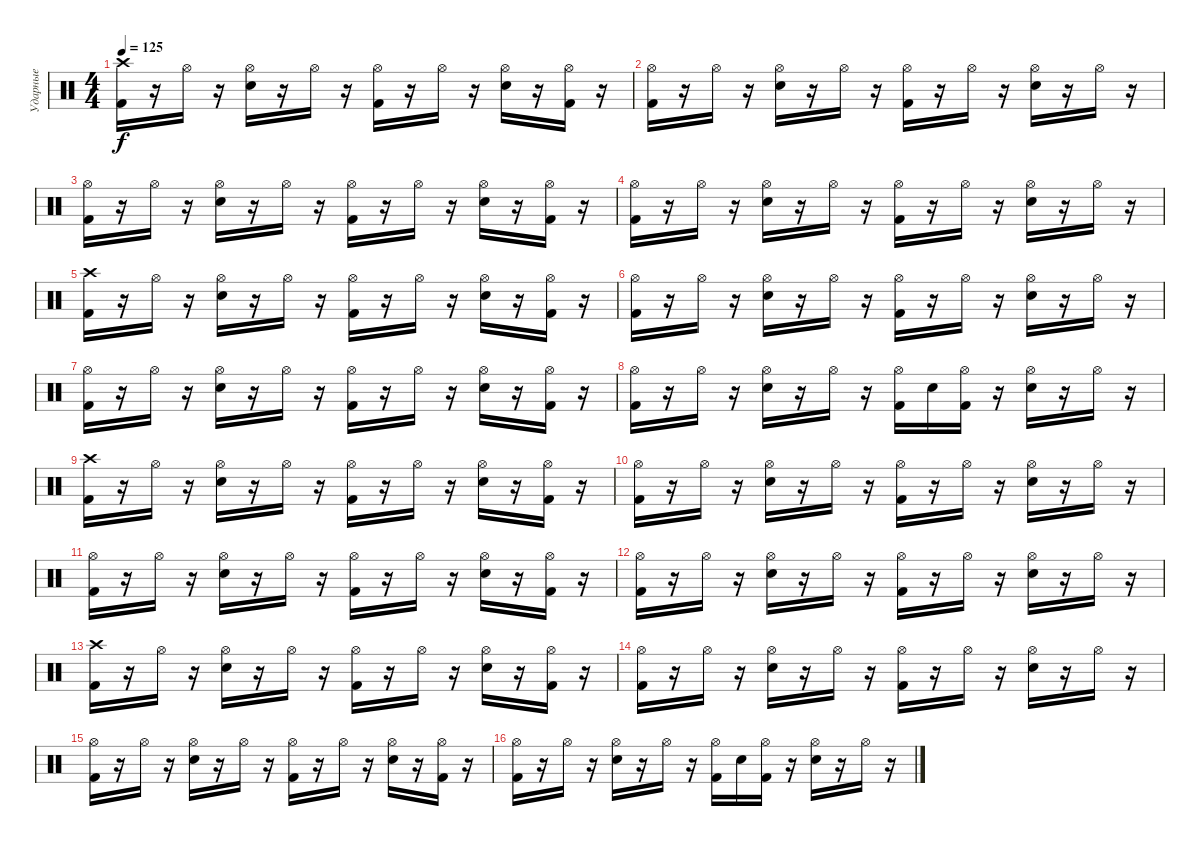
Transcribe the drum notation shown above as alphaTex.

\track ("Ударные" "Ударные") {instrument percussion}
\staff {score}
\articulation defaults
\ts (4 4)
\tempo 125
\clef neutral
\ks c
("Crash high (hit)" "Kick (hit) 2").16{dy f} r.16 "Hi-Hat (open)".16 r.16 ("Hi-Hat (open)" "Electric Snare (hit)").16 r.16 "Hi-Hat (open)".16 r.16 ("Hi-Hat (open)" "Kick (hit) 2").16 r.16 "Hi-Hat (open)".16 r.16 ("Hi-Hat (open)" "Electric Snare (hit)").16 r.16 ("Hi-Hat (open)" "Kick (hit) 2").16 r.16 |
("Hi-Hat (open)" "Kick (hit) 2").16 r.16 "Hi-Hat (open)".16 r.16 ("Hi-Hat (open)" "Electric Snare (hit)").16 r.16 "Hi-Hat (open)".16 r.16 ("Hi-Hat (open)" "Kick (hit) 2").16 r.16 "Hi-Hat (open)".16 r.16 ("Hi-Hat (open)" "Electric Snare (hit)").16 r.16 "Hi-Hat (open)".16 r.16 |
("Hi-Hat (open)" "Kick (hit) 2").16 r.16 "Hi-Hat (open)".16 r.16 ("Hi-Hat (open)" "Electric Snare (hit)").16 r.16 "Hi-Hat (open)".16 r.16 ("Hi-Hat (open)" "Kick (hit) 2").16 r.16 "Hi-Hat (open)".16 r.16 ("Hi-Hat (open)" "Electric Snare (hit)").16 r.16 ("Hi-Hat (open)" "Kick (hit) 2").16 r.16 |
("Hi-Hat (open)" "Kick (hit) 2").16 r.16 "Hi-Hat (open)".16 r.16 ("Hi-Hat (open)" "Electric Snare (hit)").16 r.16 "Hi-Hat (open)".16 r.16 ("Hi-Hat (open)" "Kick (hit) 2").16 r.16 "Hi-Hat (open)".16 r.16 ("Hi-Hat (open)" "Electric Snare (hit)").16 r.16 "Hi-Hat (open)".16 r.16 |
("Crash high (hit)" "Kick (hit) 2").16 r.16 "Hi-Hat (open)".16 r.16 ("Hi-Hat (open)" "Electric Snare (hit)").16 r.16 "Hi-Hat (open)".16 r.16 ("Hi-Hat (open)" "Kick (hit) 2").16 r.16 "Hi-Hat (open)".16 r.16 ("Hi-Hat (open)" "Electric Snare (hit)").16 r.16 ("Hi-Hat (open)" "Kick (hit) 2").16 r.16 |
("Hi-Hat (open)" "Kick (hit) 2").16 r.16 "Hi-Hat (open)".16 r.16 ("Hi-Hat (open)" "Electric Snare (hit)").16 r.16 "Hi-Hat (open)".16 r.16 ("Hi-Hat (open)" "Kick (hit) 2").16 r.16 "Hi-Hat (open)".16 r.16 ("Hi-Hat (open)" "Electric Snare (hit)").16 r.16 "Hi-Hat (open)".16 r.16 |
("Hi-Hat (open)" "Kick (hit) 2").16 r.16 "Hi-Hat (open)".16 r.16 ("Hi-Hat (open)" "Electric Snare (hit)").16 r.16 "Hi-Hat (open)".16 r.16 ("Hi-Hat (open)" "Kick (hit) 2").16 r.16 "Hi-Hat (open)".16 r.16 ("Hi-Hat (open)" "Electric Snare (hit)").16 r.16 ("Hi-Hat (open)" "Kick (hit) 2").16 r.16 |
("Hi-Hat (open)" "Kick (hit) 2").16 r.16 "Hi-Hat (open)".16 r.16 ("Hi-Hat (open)" "Electric Snare (hit)").16 r.16 "Hi-Hat (open)".16 r.16 ("Hi-Hat (open)" "Kick (hit) 2").16 "Electric Snare (hit)".16 ("Hi-Hat (open)" "Kick (hit) 2").16 r.16 ("Hi-Hat (open)" "Electric Snare (hit)").16 r.16 "Hi-Hat (open)".16 r.16 |
("Crash high (hit)" "Kick (hit) 2").16 r.16 "Hi-Hat (open)".16 r.16 ("Hi-Hat (open)" "Electric Snare (hit)").16 r.16 "Hi-Hat (open)".16 r.16 ("Hi-Hat (open)" "Kick (hit) 2").16 r.16 "Hi-Hat (open)".16 r.16 ("Hi-Hat (open)" "Electric Snare (hit)").16 r.16 ("Hi-Hat (open)" "Kick (hit) 2").16 r.16 |
("Hi-Hat (open)" "Kick (hit) 2").16 r.16 "Hi-Hat (open)".16 r.16 ("Hi-Hat (open)" "Electric Snare (hit)").16 r.16 "Hi-Hat (open)".16 r.16 ("Hi-Hat (open)" "Kick (hit) 2").16 r.16 "Hi-Hat (open)".16 r.16 ("Hi-Hat (open)" "Electric Snare (hit)").16 r.16 "Hi-Hat (open)".16 r.16 |
("Hi-Hat (open)" "Kick (hit) 2").16 r.16 "Hi-Hat (open)".16 r.16 ("Hi-Hat (open)" "Electric Snare (hit)").16 r.16 "Hi-Hat (open)".16 r.16 ("Hi-Hat (open)" "Kick (hit) 2").16 r.16 "Hi-Hat (open)".16 r.16 ("Hi-Hat (open)" "Electric Snare (hit)").16 r.16 ("Hi-Hat (open)" "Kick (hit) 2").16 r.16 |
("Hi-Hat (open)" "Kick (hit) 2").16 r.16 "Hi-Hat (open)".16 r.16 ("Hi-Hat (open)" "Electric Snare (hit)").16 r.16 "Hi-Hat (open)".16 r.16 ("Hi-Hat (open)" "Kick (hit) 2").16 r.16 "Hi-Hat (open)".16 r.16 ("Hi-Hat (open)" "Electric Snare (hit)").16 r.16 "Hi-Hat (open)".16 r.16 |
("Crash high (hit)" "Kick (hit) 2").16 r.16 "Hi-Hat (open)".16 r.16 ("Hi-Hat (open)" "Electric Snare (hit)").16 r.16 "Hi-Hat (open)".16 r.16 ("Hi-Hat (open)" "Kick (hit) 2").16 r.16 "Hi-Hat (open)".16 r.16 ("Hi-Hat (open)" "Electric Snare (hit)").16 r.16 ("Hi-Hat (open)" "Kick (hit) 2").16 r.16 |
("Hi-Hat (open)" "Kick (hit) 2").16 r.16 "Hi-Hat (open)".16 r.16 ("Hi-Hat (open)" "Electric Snare (hit)").16 r.16 "Hi-Hat (open)".16 r.16 ("Hi-Hat (open)" "Kick (hit) 2").16 r.16 "Hi-Hat (open)".16 r.16 ("Hi-Hat (open)" "Electric Snare (hit)").16 r.16 "Hi-Hat (open)".16 r.16 |
("Hi-Hat (open)" "Kick (hit) 2").16 r.16 "Hi-Hat (open)".16 r.16 ("Hi-Hat (open)" "Electric Snare (hit)").16 r.16 "Hi-Hat (open)".16 r.16 ("Hi-Hat (open)" "Kick (hit) 2").16 r.16 "Hi-Hat (open)".16 r.16 ("Hi-Hat (open)" "Electric Snare (hit)").16 r.16 ("Hi-Hat (open)" "Kick (hit) 2").16 r.16 |
("Hi-Hat (open)" "Kick (hit) 2").16 r.16 "Hi-Hat (open)".16 r.16 ("Hi-Hat (open)" "Electric Snare (hit)").16 r.16 "Hi-Hat (open)".16 r.16 ("Hi-Hat (open)" "Kick (hit) 2").16 "Electric Snare (hit)".16 ("Hi-Hat (open)" "Kick (hit) 2").16 r.16 ("Hi-Hat (open)" "Electric Snare (hit)").16 r.16 "Hi-Hat (open)".16 r.16
